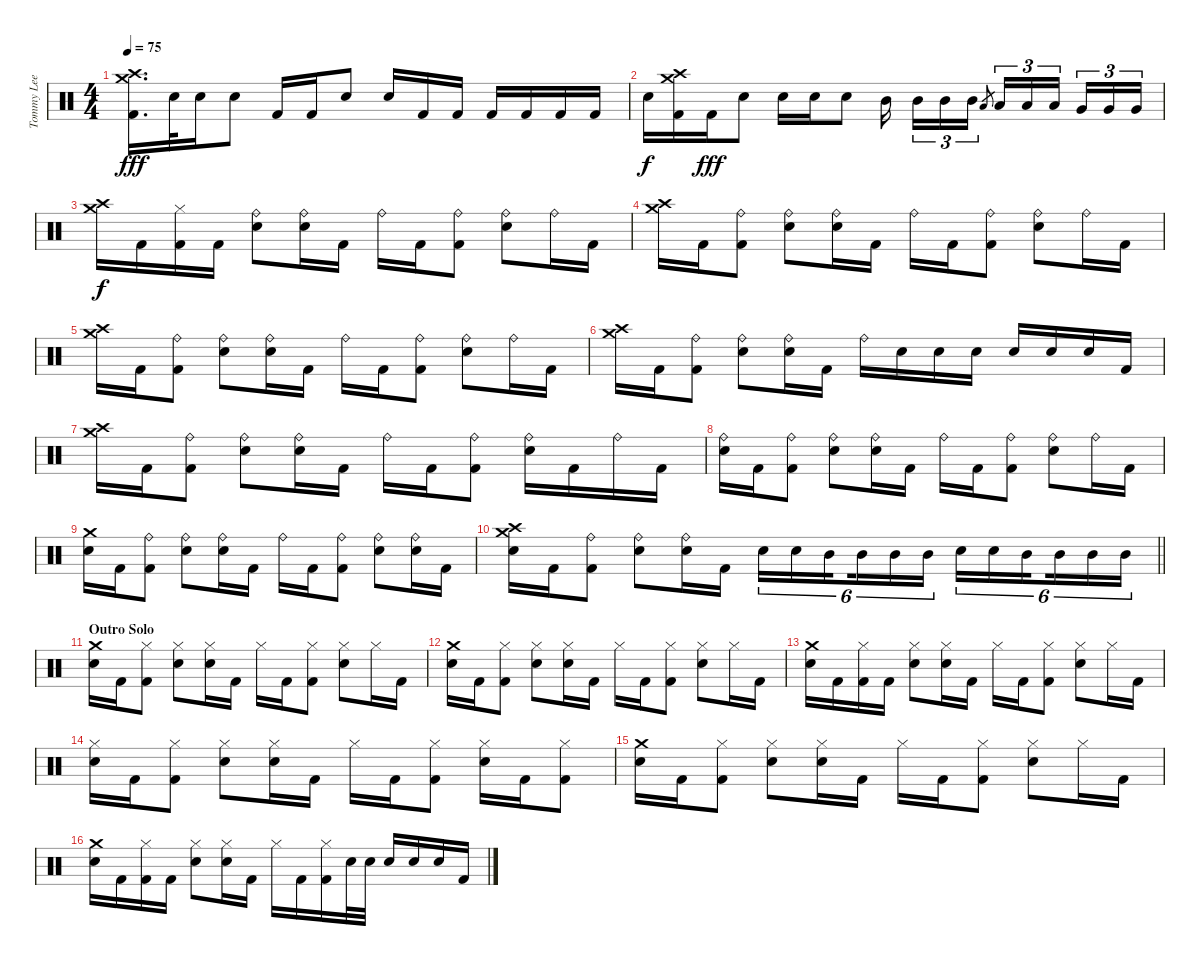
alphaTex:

\track ("Tommy Lee - Drums" "Tommy Lee ") {instrument percussion}
\staff {score}
\articulation defaults
\ts (4 4)
\tempo 75
\clef neutral
\ks c
("Crash medium (hit)" "Crash high (hit)" "Kick (hit) 2").16{d dy fff} "Snare (hit) 2".32 "Snare (hit) 2".16 "Snare (hit) 2".8 "Kick (hit) 2".16 "Kick (hit) 2".16 "Snare (hit) 2".8 "Snare (hit) 2".16 "Kick (hit) 2".16 "Kick (hit) 2".16 "Kick (hit) 2".16 "Kick (hit) 2".16 "Kick (hit) 2".16 "Kick (hit) 2".16 |
"Snare (hit) 2".16{dy f} ("Crash medium (hit)" "Crash high (hit)" "Kick (hit) 2").16 "Kick (hit) 2".16{dy fff} "Snare (hit) 2".8 "Snare (hit) 2".16 "Snare (hit) 2".16 "Snare (hit) 2".8 "Mid Tom (hit)".16{beam splitsecondary} "Mid Tom (hit)".16{tu (3 2)} "Mid Tom (hit)".16{tu (3 2)} "Mid Tom (hit)".16{tu (3 2)} "Low Tom (hit)".8{gr} "Low Tom (hit)".16{tu (3 2)} "Low Tom (hit)".16{tu (3 2)} "Low Tom (hit)".16{tu (3 2) beam splitsecondary} "Very Low Tom (hit)".16{tu (3 2)} "Very Low Tom (hit)".16{tu (3 2)} "Very Low Tom (hit)".16{tu (3 2)} |
("Crash medium (hit)" "Crash high (hit)").16{dy f} "Kick (hit) 2".16 ("Hi-Hat (closed)" "Kick (hit) 2").16 "Kick (hit) 2".16 ("Ride (bell)" "Snare (hit) 2").8 ("Ride (bell)" "Snare (hit) 2").16 "Kick (hit) 2".16 "Ride (bell)".16 "Kick (hit) 2".16 ("Ride (bell)" "Kick (hit) 2").8 ("Ride (bell)" "Snare (hit) 2").8 "Ride (bell)".16 "Kick (hit) 2".16 |
("Crash medium (hit)" "Crash high (hit)").16 "Kick (hit) 2".16 ("Ride (bell)" "Kick (hit) 2").8 ("Ride (bell)" "Snare (hit) 2").8 ("Ride (bell)" "Snare (hit) 2").16 "Kick (hit) 2".16 "Ride (bell)".16 "Kick (hit) 2".16 ("Ride (bell)" "Kick (hit) 2").8 ("Ride (bell)" "Snare (hit) 2").8 "Ride (bell)".16 "Kick (hit) 2".16 |
("Crash medium (hit)" "Crash high (hit)").16 "Kick (hit) 2".16 ("Ride (bell)" "Kick (hit) 2").8 ("Ride (bell)" "Snare (hit) 2").8 ("Ride (bell)" "Snare (hit) 2").16 "Kick (hit) 2".16 "Ride (bell)".16 "Kick (hit) 2".16 ("Ride (bell)" "Kick (hit) 2").8 ("Ride (bell)" "Snare (hit) 2").8 "Ride (bell)".16 "Kick (hit) 2".16 |
("Crash medium (hit)" "Crash high (hit)").16 "Kick (hit) 2".16 ("Ride (bell)" "Kick (hit) 2").8 ("Ride (bell)" "Snare (hit) 2").8 ("Ride (bell)" "Snare (hit) 2").16 "Kick (hit) 2".16 "Ride (bell)".16 "Snare (hit) 2".16 "Snare (hit) 2".16 "Snare (hit) 2".16 "Snare (hit) 2".16 "Snare (hit) 2".16 "Snare (hit) 2".16 "Kick (hit) 2".16 |
("Crash medium (hit)" "Crash high (hit)").16 "Kick (hit) 2".16 ("Ride (bell)" "Kick (hit) 2").8 ("Ride (bell)" "Snare (hit) 2").8 ("Ride (bell)" "Snare (hit) 2").16 "Kick (hit) 2".16 "Ride (bell)".16 "Kick (hit) 2".16 ("Ride (bell)" "Kick (hit) 2").8 ("Ride (bell)" "Snare (hit) 2").16 "Kick (hit) 2".16 "Ride (bell)".16 "Kick (hit) 2".16 |
("Ride (bell)" "Snare (hit) 2").16 "Kick (hit) 2".16 ("Ride (bell)" "Kick (hit) 2").8 ("Ride (bell)" "Snare (hit) 2").8 ("Ride (bell)" "Snare (hit) 2").16 "Kick (hit) 2".16 "Ride (bell)".16 "Kick (hit) 2".16 ("Ride (bell)" "Kick (hit) 2").8 ("Ride (bell)" "Snare (hit) 2").8 "Ride (bell)".16 "Kick (hit) 2".16 |
("Crash medium (hit)" "Snare (hit) 2").16 "Kick (hit) 2".16 ("Ride (bell)" "Kick (hit) 2").8 ("Ride (bell)" "Snare (hit) 2").8 ("Ride (bell)" "Snare (hit) 2").16 "Kick (hit) 2".16 "Ride (bell)".16 "Kick (hit) 2".16 ("Ride (bell)" "Kick (hit) 2").8 ("Ride (bell)" "Snare (hit) 2").8 ("Ride (bell)" "Snare (hit) 2").16 "Kick (hit) 2".16 |
\barLineRight lightlight
("Crash medium (hit)" "Crash high (hit)" "Snare (hit) 2").16 "Kick (hit) 2".16 ("Ride (bell)" "Kick (hit) 2").8 ("Ride (bell)" "Snare (hit) 2").8 ("Ride (bell)" "Snare (hit) 2").16 "Kick (hit) 2".16 "Snare (hit) 2".16{tu (6 4)} "Snare (hit) 2".16{tu (6 4)} "Mid Tom (hit)".16{tu (6 4) beam splitsecondary} "Mid Tom (hit)".16{tu (6 4)} "Mid Tom (hit)".16{tu (6 4)} "Mid Tom (hit)".16{tu (6 4)} "Snare (hit) 2".16{tu (6 4)} "Snare (hit) 2".16{tu (6 4)} "Mid Tom (hit)".16{tu (6 4) beam splitsecondary} "Mid Tom (hit)".16{tu (6 4)} "Mid Tom (hit)".16{tu (6 4)} "Mid Tom (hit)".16{tu (6 4)} |
\section ("" "Outro Solo")
("Crash medium (hit)" "Snare (hit) 2").16 "Kick (hit) 2".16 ("Hi-Hat (closed)" "Kick (hit) 2").8 ("Hi-Hat (closed)" "Snare (hit) 2").8 ("Hi-Hat (closed)" "Snare (hit) 2").16 "Kick (hit) 2".16 "Hi-Hat (closed)".16 "Kick (hit) 2".16 ("Hi-Hat (closed)" "Kick (hit) 2").8 ("Hi-Hat (closed)" "Snare (hit) 2").8 "Hi-Hat (closed)".16 "Kick (hit) 2".16 |
("Crash medium (hit)" "Snare (hit) 2").16 "Kick (hit) 2".16 ("Hi-Hat (closed)" "Kick (hit) 2").8 ("Hi-Hat (closed)" "Snare (hit) 2").8 ("Hi-Hat (closed)" "Snare (hit) 2").16 "Kick (hit) 2".16 "Hi-Hat (closed)".16 "Kick (hit) 2".16 ("Hi-Hat (closed)" "Kick (hit) 2").8 ("Hi-Hat (closed)" "Snare (hit) 2").8 "Hi-Hat (closed)".16 "Kick (hit) 2".16 |
("Crash medium (hit)" "Snare (hit) 2").16 "Kick (hit) 2".16 ("Hi-Hat (closed)" "Kick (hit) 2").16 "Kick (hit) 2".16 ("Hi-Hat (closed)" "Snare (hit) 2").8 ("Hi-Hat (closed)" "Snare (hit) 2").16 "Kick (hit) 2".16 "Hi-Hat (closed)".16 "Kick (hit) 2".16 ("Hi-Hat (closed)" "Kick (hit) 2").8 ("Hi-Hat (closed)" "Snare (hit) 2").8 "Hi-Hat (closed)".16 "Kick (hit) 2".16 |
("Hi-Hat (closed)" "Snare (hit) 2").16 "Kick (hit) 2".16 ("Hi-Hat (closed)" "Kick (hit) 2").8 ("Hi-Hat (closed)" "Snare (hit) 2").8 ("Hi-Hat (closed)" "Snare (hit) 2").16 "Kick (hit) 2".16 "Hi-Hat (closed)".16 "Kick (hit) 2".16 ("Hi-Hat (closed)" "Kick (hit) 2").8 ("Hi-Hat (closed)" "Snare (hit) 2").16 "Kick (hit) 2".16 ("Hi-Hat (closed)" "Kick (hit) 2").8 |
("Crash medium (hit)" "Snare (hit) 2").16 "Kick (hit) 2".16 ("Hi-Hat (closed)" "Kick (hit) 2").8 ("Hi-Hat (closed)" "Snare (hit) 2").8 ("Hi-Hat (closed)" "Snare (hit) 2").16 "Kick (hit) 2".16 "Hi-Hat (closed)".16 "Kick (hit) 2".16 ("Hi-Hat (closed)" "Kick (hit) 2").8 ("Hi-Hat (closed)" "Snare (hit) 2").8 "Hi-Hat (closed)".16 "Kick (hit) 2".16 |
("Crash medium (hit)" "Snare (hit) 2").16 "Kick (hit) 2".16 ("Hi-Hat (closed)" "Kick (hit) 2").16 "Kick (hit) 2".16 ("Hi-Hat (closed)" "Snare (hit) 2").8 ("Hi-Hat (closed)" "Snare (hit) 2").16 "Kick (hit) 2".16 "Hi-Hat (closed)".16 "Kick (hit) 2".16 ("Hi-Hat (closed)" "Kick (hit) 2").16 "Snare (hit) 2".32 "Snare (hit) 2".32 "Snare (hit) 2".16 "Snare (hit) 2".16 "Snare (hit) 2".16 "Kick (hit) 2".16
